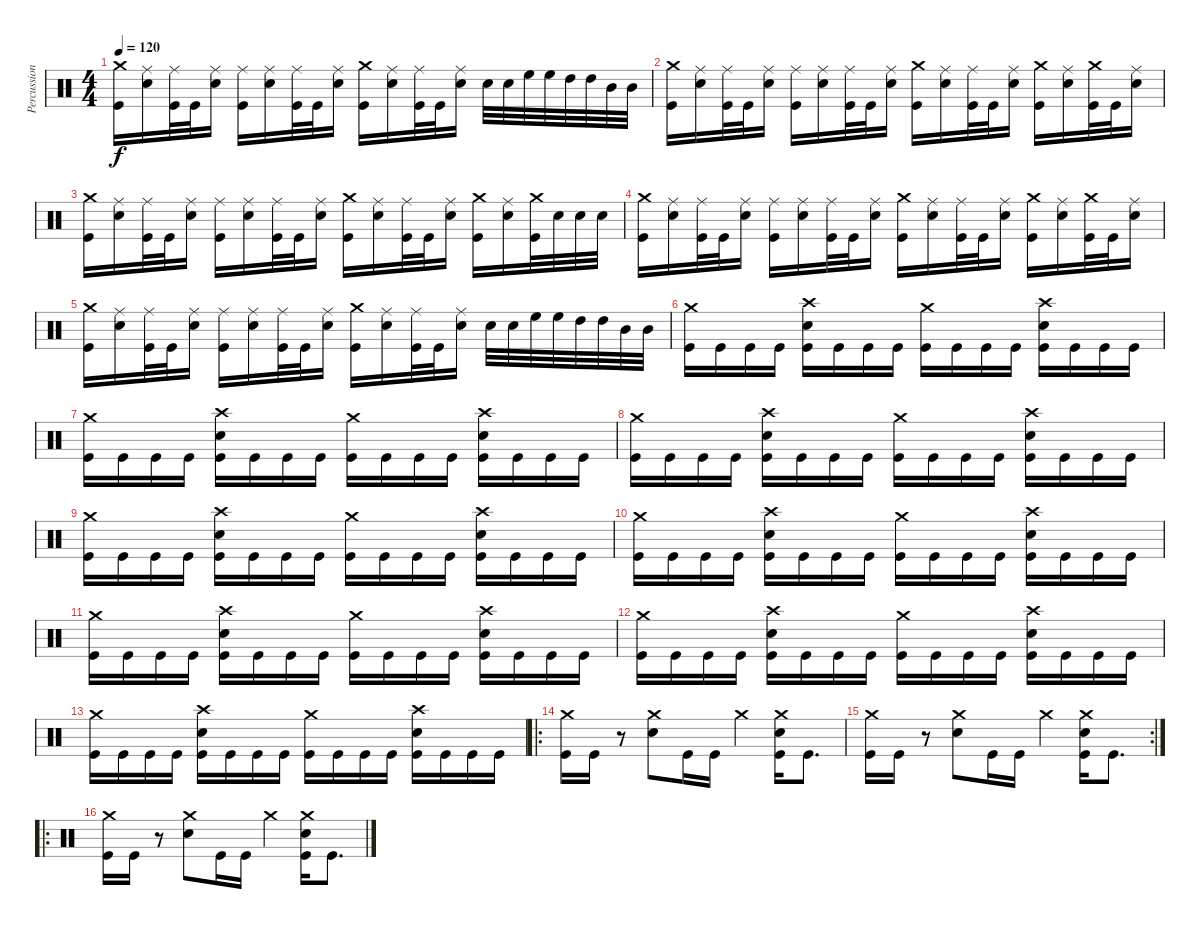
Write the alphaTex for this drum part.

\track ("Percussion" "Percussion") {instrument percussion}
\staff {score}
\articulation defaults
\ts (4 4)
\tempo 120
\clef neutral
\ks c
("Crash medium (hit)" "Kick (hit)").16{dy f} ("Ride (middle)" "Snare (hit) 2").16 ("Ride (middle)" "Kick (hit)").32 "Kick (hit)".32 ("Ride (middle)" "Snare (hit) 2").16 ("Ride (middle)" "Kick (hit)").16 ("Ride (middle)" "Snare (hit) 2").16 ("Ride (middle)" "Kick (hit)").32 "Kick (hit)".32 ("Ride (middle)" "Snare (hit) 2").16 ("Crash medium (hit)" "Kick (hit)").16 ("Ride (middle)" "Snare (hit) 2").16 ("Ride (middle)" "Kick (hit)").32 "Kick (hit)".32 ("Ride (middle)" "Snare (hit) 2").16 "Snare (hit) 2".32 "Snare (hit) 2".32 "High Floor Tom (hit)".32 "High Floor Tom (hit)".32 "High Tom (hit)".32 "High Tom (hit)".32 "Mid Tom (hit)".32 "Mid Tom (hit)".32 |
("Crash medium (hit)" "Kick (hit)").16 ("Ride (middle)" "Snare (hit) 2").16 ("Ride (middle)" "Kick (hit)").32 "Kick (hit)".32 ("Ride (middle)" "Snare (hit) 2").16 ("Ride (middle)" "Kick (hit)").16 ("Ride (middle)" "Snare (hit) 2").16 ("Ride (middle)" "Kick (hit)").32 "Kick (hit)".32 ("Ride (middle)" "Snare (hit) 2").16 ("Crash medium (hit)" "Kick (hit)").16 ("Ride (middle)" "Snare (hit) 2").16 ("Ride (middle)" "Kick (hit)").32 "Kick (hit)".32 ("Ride (middle)" "Snare (hit) 2").16 ("Crash medium (hit)" "Kick (hit)").16 ("Ride (middle)" "Snare (hit) 2").16 ("Crash medium (hit)" "Kick (hit)").32 "Kick (hit)".32 ("Ride (middle)" "Snare (hit) 2").16 |
("Crash medium (hit)" "Kick (hit)").16 ("Ride (middle)" "Snare (hit) 2").16 ("Ride (middle)" "Kick (hit)").32 "Kick (hit)".32 ("Ride (middle)" "Snare (hit) 2").16 ("Ride (middle)" "Kick (hit)").16 ("Ride (middle)" "Snare (hit) 2").16 ("Ride (middle)" "Kick (hit)").32 "Kick (hit)".32 ("Ride (middle)" "Snare (hit) 2").16 ("Crash medium (hit)" "Kick (hit)").16 ("Ride (middle)" "Snare (hit) 2").16 ("Ride (middle)" "Kick (hit)").32 "Kick (hit)".32 ("Ride (middle)" "Snare (hit) 2").16 ("Crash medium (hit)" "Kick (hit)").16 ("Ride (middle)" "Snare (hit) 2").16 ("Crash medium (hit)" "Kick (hit)").32 "Snare (hit) 2".32 "Snare (hit) 2".32 "Snare (hit) 2".32 |
("Crash medium (hit)" "Kick (hit)").16 ("Ride (middle)" "Snare (hit) 2").16 ("Ride (middle)" "Kick (hit)").32 "Kick (hit)".32 ("Ride (middle)" "Snare (hit) 2").16 ("Ride (middle)" "Kick (hit)").16 ("Ride (middle)" "Snare (hit) 2").16 ("Ride (middle)" "Kick (hit)").32 "Kick (hit)".32 ("Ride (middle)" "Snare (hit) 2").16 ("Crash medium (hit)" "Kick (hit)").16 ("Ride (middle)" "Snare (hit) 2").16 ("Ride (middle)" "Kick (hit)").32 "Kick (hit)".32 ("Ride (middle)" "Snare (hit) 2").16 ("Crash medium (hit)" "Kick (hit)").16 ("Ride (middle)" "Snare (hit) 2").16 ("Crash medium (hit)" "Kick (hit)").32 "Kick (hit)".32 ("Ride (middle)" "Snare (hit) 2").16 |
("Crash medium (hit)" "Kick (hit)").16 ("Ride (middle)" "Snare (hit) 2").16 ("Ride (middle)" "Kick (hit)").32 "Kick (hit)".32 ("Ride (middle)" "Snare (hit) 2").16 ("Ride (middle)" "Kick (hit)").16 ("Ride (middle)" "Snare (hit) 2").16 ("Ride (middle)" "Kick (hit)").32 "Kick (hit)".32 ("Ride (middle)" "Snare (hit) 2").16 ("Crash medium (hit)" "Kick (hit)").16 ("Ride (middle)" "Snare (hit) 2").16 ("Ride (middle)" "Kick (hit)").32 "Kick (hit)".32 ("Ride (middle)" "Snare (hit) 2").16 "Snare (hit) 2".32 "Snare (hit) 2".32 "High Floor Tom (hit)".32 "High Floor Tom (hit)".32 "High Tom (hit)".32 "High Tom (hit)".32 "Mid Tom (hit)".32 "Mid Tom (hit)".32 |
("Crash medium (hit)" "Kick (hit)").16 "Kick (hit)".16 "Kick (hit)".16 "Kick (hit)".16 ("Crash high (hit)" "Snare (hit) 2" "Kick (hit)").16 "Kick (hit)".16 "Kick (hit)".16 "Kick (hit)".16 ("Crash medium (hit)" "Kick (hit)").16 "Kick (hit)".16 "Kick (hit)".16 "Kick (hit)".16 ("Crash high (hit)" "Snare (hit) 2" "Kick (hit)").16 "Kick (hit)".16 "Kick (hit)".16 "Kick (hit)".16 |
("Crash medium (hit)" "Kick (hit)").16 "Kick (hit)".16 "Kick (hit)".16 "Kick (hit)".16 ("Crash high (hit)" "Snare (hit) 2" "Kick (hit)").16 "Kick (hit)".16 "Kick (hit)".16 "Kick (hit)".16 ("Crash medium (hit)" "Kick (hit)").16 "Kick (hit)".16 "Kick (hit)".16 "Kick (hit)".16 ("Crash high (hit)" "Snare (hit) 2" "Kick (hit)").16 "Kick (hit)".16 "Kick (hit)".16 "Kick (hit)".16 |
("Crash medium (hit)" "Kick (hit)").16 "Kick (hit)".16 "Kick (hit)".16 "Kick (hit)".16 ("Crash high (hit)" "Snare (hit) 2" "Kick (hit)").16 "Kick (hit)".16 "Kick (hit)".16 "Kick (hit)".16 ("Crash medium (hit)" "Kick (hit)").16 "Kick (hit)".16 "Kick (hit)".16 "Kick (hit)".16 ("Crash high (hit)" "Snare (hit) 2" "Kick (hit)").16 "Kick (hit)".16 "Kick (hit)".16 "Kick (hit)".16 |
("Crash medium (hit)" "Kick (hit)").16 "Kick (hit)".16 "Kick (hit)".16 "Kick (hit)".16 ("Crash high (hit)" "Snare (hit) 2" "Kick (hit)").16 "Kick (hit)".16 "Kick (hit)".16 "Kick (hit)".16 ("Crash medium (hit)" "Kick (hit)").16 "Kick (hit)".16 "Kick (hit)".16 "Kick (hit)".16 ("Crash high (hit)" "Snare (hit) 2" "Kick (hit)").16 "Kick (hit)".16 "Kick (hit)".16 "Kick (hit)".16 |
("Crash medium (hit)" "Kick (hit)").16 "Kick (hit)".16 "Kick (hit)".16 "Kick (hit)".16 ("Crash high (hit)" "Snare (hit) 2" "Kick (hit)").16 "Kick (hit)".16 "Kick (hit)".16 "Kick (hit)".16 ("Crash medium (hit)" "Kick (hit)").16 "Kick (hit)".16 "Kick (hit)".16 "Kick (hit)".16 ("Crash high (hit)" "Snare (hit) 2" "Kick (hit)").16 "Kick (hit)".16 "Kick (hit)".16 "Kick (hit)".16 |
("Crash medium (hit)" "Kick (hit)").16 "Kick (hit)".16 "Kick (hit)".16 "Kick (hit)".16 ("Crash high (hit)" "Snare (hit) 2" "Kick (hit)").16 "Kick (hit)".16 "Kick (hit)".16 "Kick (hit)".16 ("Crash medium (hit)" "Kick (hit)").16 "Kick (hit)".16 "Kick (hit)".16 "Kick (hit)".16 ("Crash high (hit)" "Snare (hit) 2" "Kick (hit)").16 "Kick (hit)".16 "Kick (hit)".16 "Kick (hit)".16 |
("Crash medium (hit)" "Kick (hit)").16 "Kick (hit)".16 "Kick (hit)".16 "Kick (hit)".16 ("Crash high (hit)" "Snare (hit) 2" "Kick (hit)").16 "Kick (hit)".16 "Kick (hit)".16 "Kick (hit)".16 ("Crash medium (hit)" "Kick (hit)").16 "Kick (hit)".16 "Kick (hit)".16 "Kick (hit)".16 ("Crash high (hit)" "Snare (hit) 2" "Kick (hit)").16 "Kick (hit)".16 "Kick (hit)".16 "Kick (hit)".16 |
("Crash medium (hit)" "Kick (hit)").16 "Kick (hit)".16 "Kick (hit)".16 "Kick (hit)".16 ("Crash high (hit)" "Snare (hit) 2" "Kick (hit)").16 "Kick (hit)".16 "Kick (hit)".16 "Kick (hit)".16 ("Crash medium (hit)" "Kick (hit)").16 "Kick (hit)".16 "Kick (hit)".16 "Kick (hit)".16 ("Crash high (hit)" "Snare (hit) 2" "Kick (hit)").16 "Kick (hit)".16 "Kick (hit)".16 "Kick (hit)".16 |
\ro
("Crash medium (hit)" "Kick (hit)").16 "Kick (hit)".16 r.8 ("Crash medium (hit)" "Snare (hit) 2").8 "Kick (hit)".16 "Kick (hit)".16 "Crash medium (hit)".4 ("Crash medium (hit)" "Snare (hit) 2" "Kick (hit)").16 "Kick (hit)".8{d} |
\rc 2
("Crash medium (hit)" "Kick (hit)").16 "Kick (hit)".16 r.8 ("Crash medium (hit)" "Snare (hit) 2").8 "Kick (hit)".16 "Kick (hit)".16 "Crash medium (hit)".4 ("Crash medium (hit)" "Snare (hit) 2" "Kick (hit)").16 "Kick (hit)".8{d} |
\ro
("Crash medium (hit)" "Kick (hit)").16 "Kick (hit)".16 r.8 ("Crash medium (hit)" "Snare (hit) 2").8 "Kick (hit)".16 "Kick (hit)".16 "Crash medium (hit)".4 ("Crash medium (hit)" "Snare (hit) 2" "Kick (hit)").16 "Kick (hit)".8{d}
